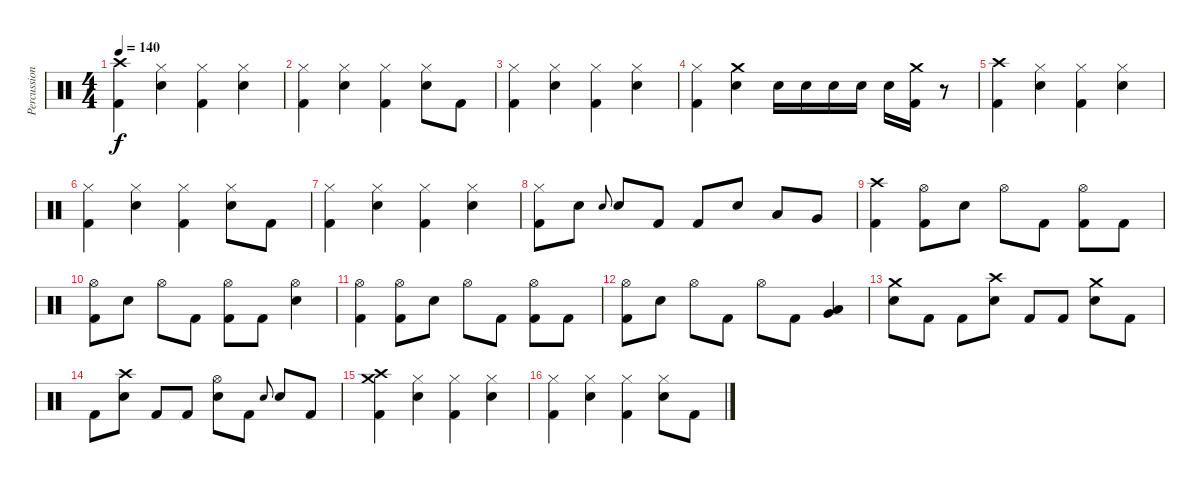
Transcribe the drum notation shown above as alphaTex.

\track ("Percussions" "Percussion") {instrument percussion}
\staff {score}
\articulation defaults
\ts (4 4)
\tempo 140
\clef neutral
\ks c
("Crash high (hit)" "Kick (hit) 2").4{dy f} ("Hi-Hat (closed)" "Electric Snare (hit)").4 ("Hi-Hat (closed)" "Kick (hit) 2").4 ("Hi-Hat (closed)" "Electric Snare (hit)").4 |
("Hi-Hat (closed)" "Kick (hit) 2").4 ("Hi-Hat (closed)" "Electric Snare (hit)").4 ("Hi-Hat (closed)" "Kick (hit) 2").4 ("Hi-Hat (closed)" "Electric Snare (hit)").8 "Kick (hit) 2".8 |
("Hi-Hat (closed)" "Kick (hit) 2").4 ("Hi-Hat (closed)" "Electric Snare (hit)").4 ("Hi-Hat (closed)" "Kick (hit) 2").4 ("Hi-Hat (closed)" "Electric Snare (hit)").4 |
("Hi-Hat (closed)" "Kick (hit) 2").4 ("Crash medium (hit)" "Electric Snare (hit)").4 "Electric Snare (hit)".16 "Electric Snare (hit)".16 "Electric Snare (hit)".16 "Electric Snare (hit)".16 "Electric Snare (hit)".16 ("Crash medium (hit)" "Kick (hit) 2").16 r.8 |
("Crash high (hit)" "Kick (hit) 2").4 ("Hi-Hat (closed)" "Electric Snare (hit)").4 ("Hi-Hat (closed)" "Kick (hit) 2").4 ("Hi-Hat (closed)" "Electric Snare (hit)").4 |
("Hi-Hat (closed)" "Kick (hit) 2").4 ("Hi-Hat (closed)" "Electric Snare (hit)").4 ("Hi-Hat (closed)" "Kick (hit) 2").4 ("Hi-Hat (closed)" "Electric Snare (hit)").8 "Kick (hit) 2".8 |
("Hi-Hat (closed)" "Kick (hit) 2").4 ("Hi-Hat (closed)" "Electric Snare (hit)").4 ("Hi-Hat (closed)" "Kick (hit) 2").4 ("Hi-Hat (closed)" "Electric Snare (hit)").4 |
("Hi-Hat (closed)" "Kick (hit) 2").8 "Electric Snare (hit)".8 "Electric Snare (hit)".8{gr onbeat} "Electric Snare (hit)".8 "Kick (hit) 2".8 "Kick (hit) 2".8 "Electric Snare (hit)".8 "Low Tom (hit)".8 "Very Low Tom (hit)".8 |
("Crash high (hit)" "Kick (hit) 2").4 ("Hi-Hat (open)" "Kick (hit) 2").8 "Electric Snare (hit)".8 "Hi-Hat (open)".8 "Kick (hit) 2".8 ("Hi-Hat (open)" "Kick (hit) 2").8 "Kick (hit) 2".8 |
("Hi-Hat (open)" "Kick (hit) 2").8 "Electric Snare (hit)".8 "Hi-Hat (open)".8 "Kick (hit) 2".8 ("Hi-Hat (open)" "Kick (hit) 2").8 "Kick (hit) 2".8 ("Hi-Hat (open)" "Electric Snare (hit)").4 |
("Hi-Hat (open)" "Kick (hit) 2").4 ("Hi-Hat (open)" "Kick (hit) 2").8 "Electric Snare (hit)".8 "Hi-Hat (open)".8 "Kick (hit) 2".8 ("Hi-Hat (open)" "Kick (hit) 2").8 "Kick (hit) 2".8 |
("Hi-Hat (open)" "Kick (hit) 2").8 "Electric Snare (hit)".8 "Hi-Hat (open)".8 "Kick (hit) 2".8 "Hi-Hat (open)".8 "Kick (hit) 2".8 ("Low Tom (hit)" "Very Low Tom (hit)").4 |
("Crash medium (hit)" "Electric Snare (hit)").8 "Kick (hit) 2".8 "Kick (hit) 2".8 ("Crash high (hit)" "Electric Snare (hit)").8 "Kick (hit) 2".8 "Kick (hit) 2".8 ("Crash medium (hit)" "Electric Snare (hit)").8 "Kick (hit) 2".8 |
"Kick (hit) 2".8 ("Crash high (hit)" "Electric Snare (hit)").8 "Kick (hit) 2".8 "Kick (hit) 2".8 ("Hi-Hat (open)" "Electric Snare (hit)").8 "Kick (hit) 2".8 "Electric Snare (hit)".8{gr onbeat} "Electric Snare (hit)".8 "Kick (hit) 2".8 |
("Crash high (hit)" "Crash medium (hit)" "Kick (hit) 2").4 ("Hi-Hat (closed)" "Electric Snare (hit)").4 ("Hi-Hat (closed)" "Kick (hit) 2").4 ("Hi-Hat (closed)" "Electric Snare (hit)").4 |
("Hi-Hat (closed)" "Kick (hit) 2").4 ("Hi-Hat (closed)" "Electric Snare (hit)").4 ("Hi-Hat (closed)" "Kick (hit) 2").4 ("Hi-Hat (closed)" "Electric Snare (hit)").8 "Kick (hit) 2".8
